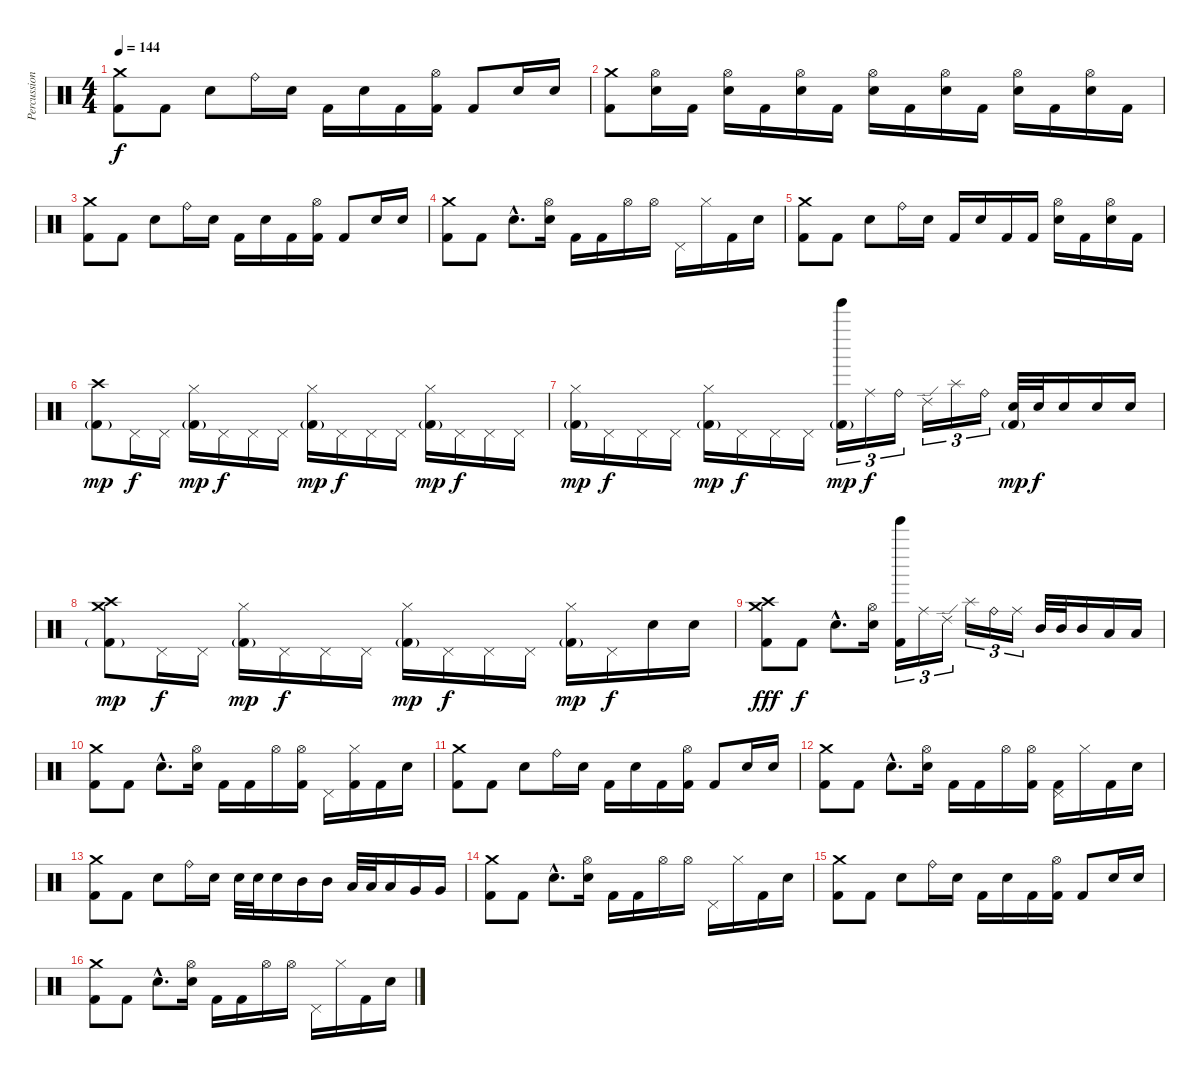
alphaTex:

\track ("Percussion" "Percussion") {instrument percussion}
\staff {score}
\articulation defaults
\ts (4 4)
\tempo 144
\clef neutral
\ks c
("Crash medium (hit)" "Kick (hit) 2").8{dy f} "Kick (hit) 2".8 "Electric Snare (hit)".8 "Ride (bell)".16 "Electric Snare (hit)".16 "Kick (hit) 2".16 "Electric Snare (hit)".16 "Kick (hit) 2".16 ("Hi-Hat (open)" "Kick (hit) 2").16 "Kick (hit) 2".8 "Electric Snare (hit)".16 "Electric Snare (hit)".16 |
("Crash medium (hit)" "Kick (hit) 2").8 ("Hi-Hat (open)" "Electric Snare (hit)").16 "Kick (hit) 2".16 ("Hi-Hat (open)" "Electric Snare (hit)").16 "Kick (hit) 2".16 ("Hi-Hat (open)" "Electric Snare (hit)").16 "Kick (hit) 2".16 ("Hi-Hat (open)" "Electric Snare (hit)").16 "Kick (hit) 2".16 ("Hi-Hat (open)" "Electric Snare (hit)").16 "Kick (hit) 2".16 ("Hi-Hat (open)" "Electric Snare (hit)").16 "Kick (hit) 2".16 ("Hi-Hat (open)" "Electric Snare (hit)").16 "Kick (hit) 2".16 |
("Crash medium (hit)" "Kick (hit) 2").8 "Kick (hit) 2".8 "Electric Snare (hit)".8 "Ride (bell)".16 "Electric Snare (hit)".16 "Kick (hit) 2".16 "Electric Snare (hit)".16 "Kick (hit) 2".16 ("Hi-Hat (open)" "Kick (hit) 2").16 "Kick (hit) 2".8 "Electric Snare (hit)".16 "Electric Snare (hit)".16 |
("Crash medium (hit)" "Kick (hit) 2").8 "Kick (hit) 2".8 "Electric Snare (hit)"{hac}.8{d} ("Hi-Hat (open)" "Electric Snare (hit)").16 "Kick (hit) 2".16 "Kick (hit) 2".16 "Hi-Hat (open)".16 "Hi-Hat (open)".16 "Pedal Hi-Hat (hit)".16 "Hi-Hat (closed)".16 "Kick (hit) 2".16 "Electric Snare (hit)".16 |
("Crash medium (hit)" "Kick (hit) 2").8 "Kick (hit) 2".8 "Electric Snare (hit)".8 "Ride (bell)".16 "Electric Snare (hit)".16 "Kick (hit) 2".16 "Electric Snare (hit)".16 "Kick (hit) 2".16 "Kick (hit) 2".16 ("Hi-Hat (open)" "Electric Snare (hit)").16 "Kick (hit) 2".16 ("Hi-Hat (open)" "Electric Snare (hit)").16 "Kick (hit) 2".16 |
("Crash high (hit)" "Kick (hit) 2"{g}).8{dy mp} "Pedal Hi-Hat (hit)".16{dy f} "Pedal Hi-Hat (hit)".16 ("Hi-Hat (closed)" "Kick (hit) 2"{g}).16{dy mp} "Pedal Hi-Hat (hit)".16{dy f} "Pedal Hi-Hat (hit)".16 "Pedal Hi-Hat (hit)".16 ("Hi-Hat (closed)" "Kick (hit) 2"{g}).16{dy mp} "Pedal Hi-Hat (hit)".16{dy f} "Pedal Hi-Hat (hit)".16 "Pedal Hi-Hat (hit)".16 ("Hi-Hat (closed)" "Kick (hit) 2"{g}).16{dy mp} "Pedal Hi-Hat (hit)".16{dy f} "Pedal Hi-Hat (hit)".16 "Pedal Hi-Hat (hit)".16 |
("Hi-Hat (closed)" "Kick (hit) 2"{g}).16{dy mp} "Pedal Hi-Hat (hit)".16{dy f} "Pedal Hi-Hat (hit)".16 "Pedal Hi-Hat (hit)".16 ("Hi-Hat (closed)" "Kick (hit) 2"{g}).16{dy mp} "Pedal Hi-Hat (hit)".16{dy f} "Pedal Hi-Hat (hit)".16 "Pedal Hi-Hat (hit)".16 ("Tinkle Bell (hit)" "Kick (hit) 2"{g}).16{tu (3 2) dy mp} "Ride (middle)".16{tu (3 2) dy f} "Ride (bell)".16{tu (3 2)} "Ride (edge) 2".16{tu (3 2)} "Splash (hit)".16{tu (3 2)} "Ride (bell)".16{tu (3 2)} ("Electric Snare (hit)" "Kick (hit) 2"{g}).32{dy mp} "Electric Snare (hit)".32{dy f} "Electric Snare (hit)".16 "Electric Snare (hit)".16 "Electric Snare (hit)".16 |
("Crash high (hit)" "Crash medium (hit)" "Kick (hit) 2"{g}).8{dy mp} "Pedal Hi-Hat (hit)".16{dy f} "Pedal Hi-Hat (hit)".16 ("Hi-Hat (closed)" "Kick (hit) 2"{g}).16{dy mp} "Pedal Hi-Hat (hit)".16{dy f} "Pedal Hi-Hat (hit)".16 "Pedal Hi-Hat (hit)".16 ("Hi-Hat (closed)" "Kick (hit) 2"{g}).16{dy mp} "Pedal Hi-Hat (hit)".16{dy f} "Pedal Hi-Hat (hit)".16 "Pedal Hi-Hat (hit)".16 ("Hi-Hat (closed)" "Kick (hit) 2"{g}).16{dy mp} "Pedal Hi-Hat (hit)".16{dy f} "Electric Snare (hit)".16 "Electric Snare (hit)".16 |
("Crash medium (hit)" "Crash high (hit)" "Kick (hit) 2").8{dy fff} "Kick (hit) 2".8{dy f} "Electric Snare (hit)"{hac}.8{d} ("Hi-Hat (open)" "Electric Snare (hit)").16 ("Tinkle Bell (hit)" "Kick (hit) 2").16{tu (3 2)} "Ride (middle)".16{tu (3 2)} "Ride (edge) 2".16{tu (3 2)} "Splash (hit)".16{tu (3 2)} "Ride (bell)".16{tu (3 2)} "Ride (middle)".16{tu (3 2)} "Mid Tom (hit)".32 "Mid Tom (hit)".32 "Mid Tom (hit)".16 "Low Tom (hit)".16 "Low Tom (hit)".16 |
("Crash medium (hit)" "Kick (hit) 2").8 "Kick (hit) 2".8 "Electric Snare (hit)"{hac}.8{d} ("Hi-Hat (open)" "Electric Snare (hit)").16 "Kick (hit) 2".16 "Kick (hit) 2".16 "Hi-Hat (open)".16 ("Hi-Hat (open)" "Kick (hit) 2").16 "Pedal Hi-Hat (hit)".16 ("Hi-Hat (closed)" "Kick (hit) 2").16 "Kick (hit) 2".16 "Electric Snare (hit)".16 |
("Crash medium (hit)" "Kick (hit) 2").8 "Kick (hit) 2".8 "Electric Snare (hit)".8 "Ride (bell)".16 "Electric Snare (hit)".16 "Kick (hit) 2".16 "Electric Snare (hit)".16 "Kick (hit) 2".16 ("Hi-Hat (open)" "Kick (hit) 2").16 "Kick (hit) 2".8 "Electric Snare (hit)".16 "Electric Snare (hit)".16 |
("Crash medium (hit)" "Kick (hit) 2").8 "Kick (hit) 2".8 "Electric Snare (hit)"{hac}.8{d} ("Hi-Hat (open)" "Electric Snare (hit)").16 "Kick (hit) 2".16 "Kick (hit) 2".16 "Hi-Hat (open)".16 ("Hi-Hat (open)" "Kick (hit) 2").16 ("Pedal Hi-Hat (hit)" "Kick (hit) 2").16 "Hi-Hat (closed)".16 "Kick (hit) 2".16 "Electric Snare (hit)".16 |
("Crash medium (hit)" "Kick (hit) 2").8 "Kick (hit) 2".8 "Electric Snare (hit)".8 "Ride (bell)".16 "Electric Snare (hit)".16 "Electric Snare (hit)".32 "Electric Snare (hit)".32 "Electric Snare (hit)".16 "Mid Tom (hit)".16 "Mid Tom (hit)".16 "Low Tom (hit)".32 "Low Tom (hit)".32 "Low Tom (hit)".16 "Very Low Tom (hit)".16 "Very Low Tom (hit)".16 |
("Crash medium (hit)" "Kick (hit) 2").8 "Kick (hit) 2".8 "Electric Snare (hit)"{hac}.8{d} ("Hi-Hat (open)" "Electric Snare (hit)").16 "Kick (hit) 2".16 "Kick (hit) 2".16 "Hi-Hat (open)".16 "Hi-Hat (open)".16 "Pedal Hi-Hat (hit)".16 "Hi-Hat (closed)".16 "Kick (hit) 2".16 "Electric Snare (hit)".16 |
("Crash medium (hit)" "Kick (hit) 2").8 "Kick (hit) 2".8 "Electric Snare (hit)".8 "Ride (bell)".16 "Electric Snare (hit)".16 "Kick (hit) 2".16 "Electric Snare (hit)".16 "Kick (hit) 2".16 ("Hi-Hat (open)" "Kick (hit) 2").16 "Kick (hit) 2".8 "Electric Snare (hit)".16 "Electric Snare (hit)".16 |
("Crash medium (hit)" "Kick (hit) 2").8 "Kick (hit) 2".8 "Electric Snare (hit)"{hac}.8{d} ("Hi-Hat (open)" "Electric Snare (hit)").16 "Kick (hit) 2".16 "Kick (hit) 2".16 "Hi-Hat (open)".16 "Hi-Hat (open)".16 "Pedal Hi-Hat (hit)".16 "Hi-Hat (closed)".16 "Kick (hit) 2".16 "Electric Snare (hit)".16
